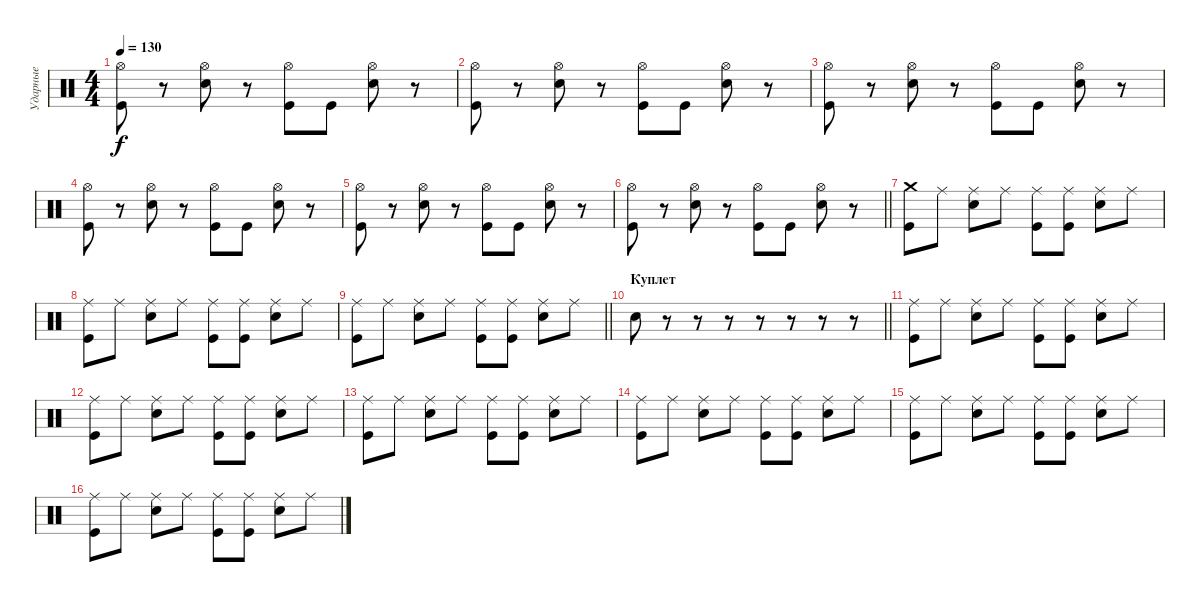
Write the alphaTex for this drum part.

\track ("Ударные" "Ударные") {instrument percussion}
\staff {score}
\articulation defaults
\ts (4 4)
\tempo 130
\clef neutral
\ks c
("Hi-Hat (open)" "Kick (hit)").8{dy f} r.8 ("Hi-Hat (open)" "Electric Snare (hit)").8 r.8 ("Hi-Hat (open)" "Kick (hit)").8 "Kick (hit)".8 ("Hi-Hat (open)" "Electric Snare (hit)").8 r.8 |
("Hi-Hat (open)" "Kick (hit)").8 r.8 ("Hi-Hat (open)" "Electric Snare (hit)").8 r.8 ("Hi-Hat (open)" "Kick (hit)").8 "Kick (hit)".8 ("Hi-Hat (open)" "Electric Snare (hit)").8 r.8 |
("Hi-Hat (open)" "Kick (hit)").8 r.8 ("Hi-Hat (open)" "Electric Snare (hit)").8 r.8 ("Hi-Hat (open)" "Kick (hit)").8 "Kick (hit)".8 ("Hi-Hat (open)" "Electric Snare (hit)").8 r.8 |
("Hi-Hat (open)" "Kick (hit)").8 r.8 ("Hi-Hat (open)" "Electric Snare (hit)").8 r.8 ("Hi-Hat (open)" "Kick (hit)").8 "Kick (hit)".8 ("Hi-Hat (open)" "Electric Snare (hit)").8 r.8 |
("Hi-Hat (open)" "Kick (hit)").8 r.8 ("Hi-Hat (open)" "Electric Snare (hit)").8 r.8 ("Hi-Hat (open)" "Kick (hit)").8 "Kick (hit)".8 ("Hi-Hat (open)" "Electric Snare (hit)").8 r.8 |
\barLineRight lightlight
("Hi-Hat (open)" "Kick (hit)").8 r.8 ("Hi-Hat (open)" "Electric Snare (hit)").8 r.8 ("Hi-Hat (open)" "Kick (hit)").8 "Kick (hit)".8 ("Hi-Hat (open)" "Electric Snare (hit)").8 r.8 |
("Crash medium (hit)" "Kick (hit)").8 "Ride (middle)".8 ("Ride (middle)" "Electric Snare (hit)").8 "Ride (middle)".8 ("Ride (middle)" "Kick (hit)").8 ("Ride (middle)" "Kick (hit)").8 ("Ride (middle)" "Electric Snare (hit)").8 "Ride (middle)".8 |
("Ride (middle)" "Kick (hit)").8 "Ride (middle)".8 ("Ride (middle)" "Electric Snare (hit)").8 "Ride (middle)".8 ("Ride (middle)" "Kick (hit)").8 ("Ride (middle)" "Kick (hit)").8 ("Ride (middle)" "Electric Snare (hit)").8 "Ride (middle)".8 |
\barLineRight lightlight
("Ride (middle)" "Kick (hit)").8 "Ride (middle)".8 ("Ride (middle)" "Electric Snare (hit)").8 "Ride (middle)".8 ("Ride (middle)" "Kick (hit)").8 ("Ride (middle)" "Kick (hit)").8 ("Ride (middle)" "Electric Snare (hit)").8 "Ride (middle)".8 |
\section ("" "Куплет")
\barLineRight lightlight "Electric Snare (hit)".8
r.8 r.8 r.8 r.8 r.8 r.8 r.8 |
("Ride (middle)" "Kick (hit)").8 "Ride (middle)".8 ("Ride (middle)" "Electric Snare (hit)").8 "Ride (middle)".8 ("Ride (middle)" "Kick (hit)").8 ("Ride (middle)" "Kick (hit)").8 ("Ride (middle)" "Electric Snare (hit)").8 "Ride (middle)".8 |
("Ride (middle)" "Kick (hit)").8 "Ride (middle)".8 ("Ride (middle)" "Electric Snare (hit)").8 "Ride (middle)".8 ("Ride (middle)" "Kick (hit)").8 ("Ride (middle)" "Kick (hit)").8 ("Ride (middle)" "Electric Snare (hit)").8 "Ride (middle)".8 |
("Ride (middle)" "Kick (hit)").8 "Ride (middle)".8 ("Ride (middle)" "Electric Snare (hit)").8 "Ride (middle)".8 ("Ride (middle)" "Kick (hit)").8 ("Ride (middle)" "Kick (hit)").8 ("Ride (middle)" "Electric Snare (hit)").8 "Ride (middle)".8 |
("Ride (middle)" "Kick (hit)").8 "Ride (middle)".8 ("Ride (middle)" "Electric Snare (hit)").8 "Ride (middle)".8 ("Ride (middle)" "Kick (hit)").8 ("Ride (middle)" "Kick (hit)").8 ("Ride (middle)" "Electric Snare (hit)").8 "Ride (middle)".8 |
("Ride (middle)" "Kick (hit)").8 "Ride (middle)".8 ("Ride (middle)" "Electric Snare (hit)").8 "Ride (middle)".8 ("Ride (middle)" "Kick (hit)").8 ("Ride (middle)" "Kick (hit)").8 ("Ride (middle)" "Electric Snare (hit)").8 "Ride (middle)".8 |
("Ride (middle)" "Kick (hit)").8 "Ride (middle)".8 ("Ride (middle)" "Electric Snare (hit)").8 "Ride (middle)".8 ("Ride (middle)" "Kick (hit)").8 ("Ride (middle)" "Kick (hit)").8 ("Ride (middle)" "Electric Snare (hit)").8 "Ride (middle)".8
